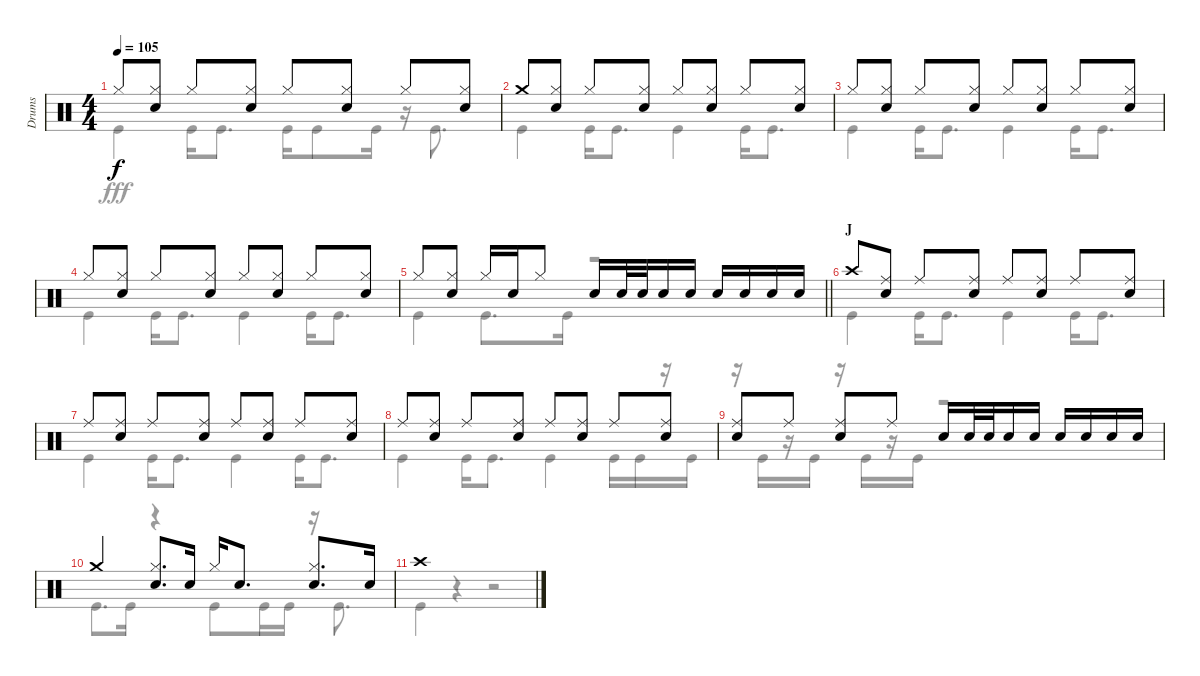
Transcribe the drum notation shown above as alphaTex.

\track ("Drums" "Drums") {instrument percussion}
\staff {score}
\articulation defaults
\voice
\ts (4 4)
\tempo 105
\clef neutral
\ks c "Hi-Hat (closed)".8{dy f}
("Hi-Hat (closed)" "Snare (hit) 2").8 "Hi-Hat (closed)".8 ("Hi-Hat (closed)" "Snare (hit) 2").8 "Hi-Hat (closed)".8 ("Hi-Hat (closed)" "Snare (hit) 2").8 "Hi-Hat (closed)".8 ("Hi-Hat (closed)" "Snare (hit) 2").8 |
"Crash medium (hit)".8 ("Hi-Hat (closed)" "Snare (hit) 2").8 "Hi-Hat (closed)".8 ("Hi-Hat (closed)" "Snare (hit) 2").8 "Hi-Hat (closed)".8 ("Hi-Hat (closed)" "Snare (hit) 2").8 "Hi-Hat (closed)".8 ("Hi-Hat (closed)" "Snare (hit) 2").8 |
"Hi-Hat (closed)".8 ("Hi-Hat (closed)" "Snare (hit) 2").8 "Hi-Hat (closed)".8 ("Hi-Hat (closed)" "Snare (hit) 2").8 "Hi-Hat (closed)".8 ("Hi-Hat (closed)" "Snare (hit) 2").8 "Hi-Hat (closed)".8 ("Hi-Hat (closed)" "Snare (hit) 2").8 |
"Hi-Hat (closed)".8 ("Hi-Hat (closed)" "Snare (hit) 2").8 "Hi-Hat (closed)".8 ("Hi-Hat (closed)" "Snare (hit) 2").8 "Hi-Hat (closed)".8 ("Hi-Hat (closed)" "Snare (hit) 2").8 "Hi-Hat (closed)".8 ("Hi-Hat (closed)" "Snare (hit) 2").8 |
\barLineRight lightlight "Hi-Hat (closed)".8
("Hi-Hat (closed)" "Snare (hit) 2").8 "Hi-Hat (closed)".16 "Snare (hit) 2".16 "Hi-Hat (closed)".8 "Snare (hit) 2".16 "Snare (hit) 2".32 "Snare (hit) 2".32 "Snare (hit) 2".16 "Snare (hit) 2".16 "Snare (hit) 2".16 "Snare (hit) 2".16 "Snare (hit) 2".16 "Snare (hit) 2".16 |
\section ("" "J")
"Crash high (hit)".8 ("Ride (middle)" "Snare (hit) 2").8 "Ride (middle)".8 ("Ride (middle)" "Snare (hit) 2").8 "Ride (middle)".8 ("Ride (middle)" "Snare (hit) 2").8 "Ride (middle)".8 ("Ride (middle)" "Snare (hit) 2").8 |
"Ride (middle)".8 ("Ride (middle)" "Snare (hit) 2").8 "Ride (middle)".8 ("Ride (middle)" "Snare (hit) 2").8 "Ride (middle)".8 ("Ride (middle)" "Snare (hit) 2").8 "Ride (middle)".8 ("Ride (middle)" "Snare (hit) 2").8 |
"Ride (middle)".8 ("Ride (middle)" "Snare (hit) 2").8 "Ride (middle)".8 ("Ride (middle)" "Snare (hit) 2").8 "Ride (middle)".8 ("Ride (middle)" "Snare (hit) 2").8 "Ride (middle)".8 ("Ride (middle)" "Snare (hit) 2").8 |
("Ride (middle)" "Snare (hit) 2").8 "Ride (middle)".8 ("Ride (middle)" "Snare (hit) 2").8 "Ride (middle)".8 "Snare (hit) 2".16 "Snare (hit) 2".32 "Snare (hit) 2".32 "Snare (hit) 2".16 "Snare (hit) 2".16 "Snare (hit) 2".16 "Snare (hit) 2".16 "Snare (hit) 2".16 "Snare (hit) 2".16 |
"Crash medium (hit)".4 ("Hi-Hat (closed)" "Snare (hit) 2").8{d} "Snare (hit) 2".16 "Hi-Hat (closed)".16 "Snare (hit) 2".8{d} ("Hi-Hat (closed)" "Snare (hit) 2").8{d} "Snare (hit) 2".16 |
"Crash high (hit)".1
\voice
\clef neutral
\ottava regular
\simile none
\ks c "Kick (hit)".4{dy fff} "Kick (hit)".16 "Kick (hit)".8{d} "Kick (hit)".16 "Kick (hit)".8 "Kick (hit)".16
r.16 "Kick (hit)".8{d} |
"Kick (hit)".4 "Kick (hit)".16 "Kick (hit)".8{d} "Kick (hit)".4 "Kick (hit)".16 "Kick (hit)".8{d} |
"Kick (hit)".4 "Kick (hit)".16 "Kick (hit)".8{d} "Kick (hit)".4 "Kick (hit)".16 "Kick (hit)".8{d} |
"Kick (hit)".4 "Kick (hit)".16 "Kick (hit)".8{d} "Kick (hit)".4 "Kick (hit)".16 "Kick (hit)".8{d} |
\barLineRight lightlight "Kick (hit)".4 "Kick (hit)".8{d} "Kick (hit)".16
r.2 |
"Kick (hit)".4 "Kick (hit)".16 "Kick (hit)".8{d} "Kick (hit)".4 "Kick (hit)".16 "Kick (hit)".8{d} |
"Kick (hit)".4 "Kick (hit)".16 "Kick (hit)".8{d} "Kick (hit)".4 "Kick (hit)".16 "Kick (hit)".8{d} |
"Kick (hit)".4 "Kick (hit)".16 "Kick (hit)".8{d} "Kick (hit)".4 "Kick (hit)".16 "Kick (hit)".16 r.16 "Kick (hit)".16 |
r.16 "Kick (hit)".16 r.16 "Kick (hit)".16 r.16 "Kick (hit)".16 r.16 "Kick (hit)".16 r.2 |
"Kick (hit)".8{d} "Kick (hit)".16 r.4 "Kick (hit)".8 "Kick (hit)".16 "Kick (hit)".16 r.16 "Kick (hit)".8{d} |
"Kick (hit)".4 r.4 r.2
